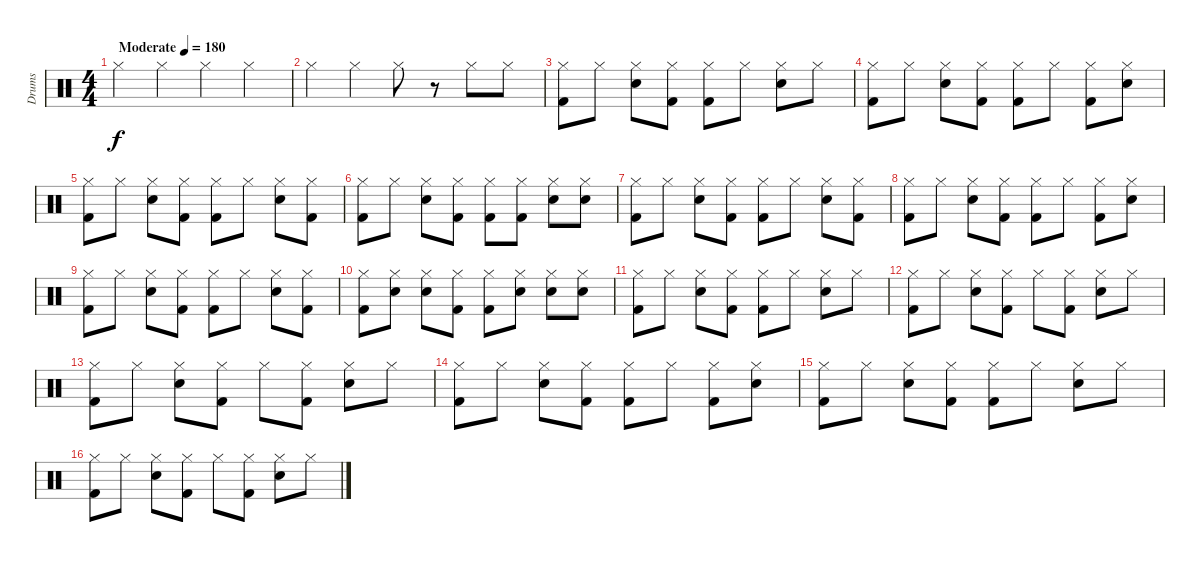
\track ("Drums" "Drums") {instrument percussion}
\staff {score}
\articulation defaults
\ts (4 4)
\tempo (180 "Moderate")
\clef neutral
\ks c "Hi-Hat (closed)".4{dy f} "Hi-Hat (closed)".4 "Hi-Hat (closed)".4 "Hi-Hat (closed)".4
|
"Hi-Hat (closed)".4 "Hi-Hat (closed)".4 "Hi-Hat (closed)".8 r.8 "Hi-Hat (closed)".8 "Hi-Hat (closed)".8 |
("Hi-Hat (closed)" "Kick (hit) 2").8 "Hi-Hat (closed)".8 ("Hi-Hat (closed)" "Snare (hit) 2").8 ("Hi-Hat (closed)" "Kick (hit) 2").8 ("Hi-Hat (closed)" "Kick (hit) 2").8 "Hi-Hat (closed)".8 ("Hi-Hat (closed)" "Snare (hit) 2").8 "Hi-Hat (closed)".8 |
("Hi-Hat (closed)" "Kick (hit) 2").8 "Hi-Hat (closed)".8 ("Hi-Hat (closed)" "Snare (hit) 2").8 ("Hi-Hat (closed)" "Kick (hit) 2").8 ("Hi-Hat (closed)" "Kick (hit) 2").8 "Hi-Hat (closed)".8 ("Hi-Hat (closed)" "Kick (hit) 2").8 ("Hi-Hat (closed)" "Snare (hit) 2").8 |
("Hi-Hat (closed)" "Kick (hit) 2").8 "Hi-Hat (closed)".8 ("Hi-Hat (closed)" "Snare (hit) 2").8 ("Hi-Hat (closed)" "Kick (hit) 2").8 ("Hi-Hat (closed)" "Kick (hit) 2").8 "Hi-Hat (closed)".8 ("Hi-Hat (closed)" "Snare (hit) 2").8 ("Hi-Hat (closed)" "Kick (hit) 2").8 |
("Hi-Hat (closed)" "Kick (hit) 2").8 "Hi-Hat (closed)".8 ("Hi-Hat (closed)" "Snare (hit) 2").8 ("Hi-Hat (closed)" "Kick (hit) 2").8 ("Hi-Hat (closed)" "Kick (hit) 2").8 ("Hi-Hat (closed)" "Kick (hit) 2").8 ("Hi-Hat (closed)" "Snare (hit) 2").8 ("Hi-Hat (closed)" "Snare (hit) 2").8 |
("Hi-Hat (closed)" "Kick (hit) 2").8 "Hi-Hat (closed)".8 ("Hi-Hat (closed)" "Snare (hit) 2").8 ("Hi-Hat (closed)" "Kick (hit) 2").8 ("Hi-Hat (closed)" "Kick (hit) 2").8 "Hi-Hat (closed)".8 ("Hi-Hat (closed)" "Snare (hit) 2").8 ("Hi-Hat (closed)" "Kick (hit) 2").8 |
("Hi-Hat (closed)" "Kick (hit) 2").8 "Hi-Hat (closed)".8 ("Hi-Hat (closed)" "Snare (hit) 2").8 ("Hi-Hat (closed)" "Kick (hit) 2").8 ("Hi-Hat (closed)" "Kick (hit) 2").8 "Hi-Hat (closed)".8 ("Hi-Hat (closed)" "Kick (hit) 2").8 ("Hi-Hat (closed)" "Snare (hit) 2").8 |
("Hi-Hat (closed)" "Kick (hit) 2").8 "Hi-Hat (closed)".8 ("Hi-Hat (closed)" "Snare (hit) 2").8 ("Hi-Hat (closed)" "Kick (hit) 2").8 ("Hi-Hat (closed)" "Kick (hit) 2").8 "Hi-Hat (closed)".8 ("Hi-Hat (closed)" "Snare (hit) 2").8 ("Hi-Hat (closed)" "Kick (hit) 2").8 |
("Hi-Hat (closed)" "Kick (hit) 2").8 ("Hi-Hat (closed)" "Snare (hit) 2").8 ("Hi-Hat (closed)" "Snare (hit) 2").8 ("Hi-Hat (closed)" "Kick (hit) 2").8 ("Hi-Hat (closed)" "Kick (hit) 2").8 ("Hi-Hat (closed)" "Snare (hit) 2").8 ("Hi-Hat (closed)" "Snare (hit) 2").8 ("Hi-Hat (closed)" "Snare (hit) 2").8 |
("Hi-Hat (closed)" "Kick (hit) 2").8 "Hi-Hat (closed)".8 ("Hi-Hat (closed)" "Snare (hit) 2").8 ("Hi-Hat (closed)" "Kick (hit) 2").8 ("Hi-Hat (closed)" "Kick (hit) 2").8 "Hi-Hat (closed)".8 ("Hi-Hat (closed)" "Snare (hit) 2").8 "Hi-Hat (closed)".8 |
("Hi-Hat (closed)" "Kick (hit) 2").8 "Hi-Hat (closed)".8 ("Hi-Hat (closed)" "Snare (hit) 2").8 ("Hi-Hat (closed)" "Kick (hit) 2").8 "Hi-Hat (closed)".8 ("Hi-Hat (closed)" "Kick (hit) 2").8 ("Hi-Hat (closed)" "Snare (hit) 2").8 "Hi-Hat (closed)".8 |
("Hi-Hat (closed)" "Kick (hit) 2").8 "Hi-Hat (closed)".8 ("Hi-Hat (closed)" "Snare (hit) 2").8 ("Hi-Hat (closed)" "Kick (hit) 2").8 "Hi-Hat (closed)".8 ("Hi-Hat (closed)" "Kick (hit) 2").8 ("Hi-Hat (closed)" "Snare (hit) 2").8 "Hi-Hat (closed)".8 |
("Hi-Hat (closed)" "Kick (hit) 2").8 "Hi-Hat (closed)".8 ("Hi-Hat (closed)" "Snare (hit) 2").8 ("Hi-Hat (closed)" "Kick (hit) 2").8 ("Hi-Hat (closed)" "Kick (hit) 2").8 "Hi-Hat (closed)".8 ("Hi-Hat (closed)" "Kick (hit) 2").8 ("Hi-Hat (closed)" "Snare (hit) 2").8 |
("Hi-Hat (closed)" "Kick (hit) 2").8 "Hi-Hat (closed)".8 ("Hi-Hat (closed)" "Snare (hit) 2").8 ("Hi-Hat (closed)" "Kick (hit) 2").8 ("Hi-Hat (closed)" "Kick (hit) 2").8 "Hi-Hat (closed)".8 ("Hi-Hat (closed)" "Snare (hit) 2").8 "Hi-Hat (closed)".8 |
("Hi-Hat (closed)" "Kick (hit) 2").8 "Hi-Hat (closed)".8 ("Hi-Hat (closed)" "Snare (hit) 2").8 ("Hi-Hat (closed)" "Kick (hit) 2").8 "Hi-Hat (closed)".8 ("Hi-Hat (closed)" "Kick (hit) 2").8 ("Hi-Hat (closed)" "Snare (hit) 2").8 "Hi-Hat (closed)".8
